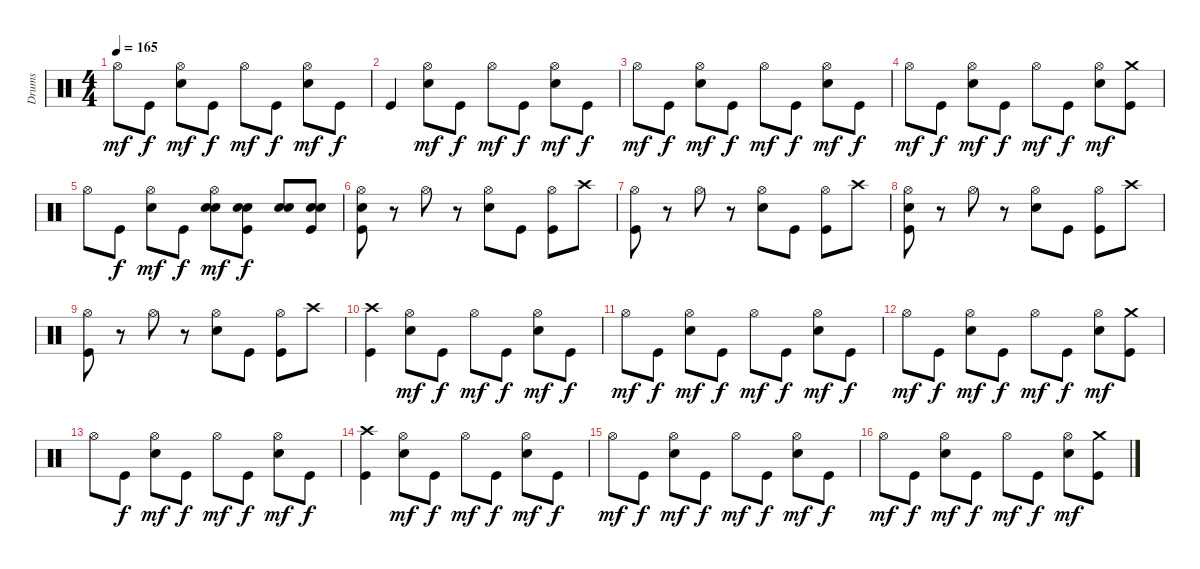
\track ("Drums" "Drums") {instrument percussion}
\staff {score}
\articulation defaults
\ts (4 4)
\tempo 165
\clef neutral
\ks c "Hi-Hat (open)".8{dy mf} "Kick (hit)".8{dy f}
("Electric Snare (hit)" "Hi-Hat (open)").8{dy mf} "Kick (hit)".8{dy f} "Hi-Hat (open)".8{dy mf} "Kick (hit)".8{dy f} ("Electric Snare (hit)" "Hi-Hat (open)").8{dy mf} "Kick (hit)".8{dy f} |
"Kick (hit)".4 ("Electric Snare (hit)" "Hi-Hat (open)").8{dy mf} "Kick (hit)".8{dy f} "Hi-Hat (open)".8{dy mf} "Kick (hit)".8{dy f} ("Electric Snare (hit)" "Hi-Hat (open)").8{dy mf} "Kick (hit)".8{dy f} |
"Hi-Hat (open)".8{dy mf} "Kick (hit)".8{dy f} ("Electric Snare (hit)" "Hi-Hat (open)").8{dy mf} "Kick (hit)".8{dy f} "Hi-Hat (open)".8{dy mf} "Kick (hit)".8{dy f} ("Electric Snare (hit)" "Hi-Hat (open)").8{dy mf} "Kick (hit)".8{dy f} |
"Hi-Hat (open)".8{dy mf} "Kick (hit)".8{dy f} ("Electric Snare (hit)" "Hi-Hat (open)").8{dy mf} "Kick (hit)".8{dy f} "Hi-Hat (open)".8{dy mf} "Kick (hit)".8{dy f} ("Electric Snare (hit)" "Hi-Hat (open)").8{dy mf} ("Kick (hit)" "Crash medium (hit)").8 |
"Hi-Hat (open)".8 "Kick (hit)".8{dy f} ("Electric Snare (hit)" "Hi-Hat (open)").8{dy mf} "Kick (hit)".8{dy f} ("Electric Snare (hit)" "Electric Snare (hit)" "Hi-Hat (open)").8{dy mf} ("Kick (hit)" "Electric Snare (hit)" "Electric Snare (hit)").8{dy f} ("Electric Snare (hit)" "Electric Snare (hit)").8 ("Kick (hit)" "Electric Snare (hit)" "Electric Snare (hit)").8 |
("Electric Snare (hit)" "Hi-Hat (open)" "Kick (hit)").8 r.8 "Hi-Hat (open)".8 r.8 ("Electric Snare (hit)" "Hi-Hat (open)").8 "Kick (hit)".8 ("Hi-Hat (open)" "Kick (hit)").8 "Crash high (hit)".8 |
("Hi-Hat (open)" "Kick (hit)").8 r.8 "Hi-Hat (open)".8 r.8 ("Electric Snare (hit)" "Hi-Hat (open)").8 "Kick (hit)".8 ("Hi-Hat (open)" "Kick (hit)").8 "Crash high (hit)".8 |
("Electric Snare (hit)" "Hi-Hat (open)" "Kick (hit)").8 r.8 "Hi-Hat (open)".8 r.8 ("Electric Snare (hit)" "Hi-Hat (open)").8 "Kick (hit)".8 ("Hi-Hat (open)" "Kick (hit)").8 "Crash high (hit)".8 |
("Hi-Hat (open)" "Kick (hit)").8 r.8 "Hi-Hat (open)".8 r.8 ("Electric Snare (hit)" "Hi-Hat (open)").8 "Kick (hit)".8 ("Hi-Hat (open)" "Kick (hit)").8 "Crash high (hit)".8 |
("Kick (hit)" "Crash high (hit)").4 ("Electric Snare (hit)" "Hi-Hat (open)").8{dy mf} "Kick (hit)".8{dy f} "Hi-Hat (open)".8{dy mf} "Kick (hit)".8{dy f} ("Electric Snare (hit)" "Hi-Hat (open)").8{dy mf} "Kick (hit)".8{dy f} |
"Hi-Hat (open)".8{dy mf} "Kick (hit)".8{dy f} ("Electric Snare (hit)" "Hi-Hat (open)").8{dy mf} "Kick (hit)".8{dy f} "Hi-Hat (open)".8{dy mf} "Kick (hit)".8{dy f} ("Electric Snare (hit)" "Hi-Hat (open)").8{dy mf} "Kick (hit)".8{dy f} |
"Hi-Hat (open)".8{dy mf} "Kick (hit)".8{dy f} ("Electric Snare (hit)" "Hi-Hat (open)").8{dy mf} "Kick (hit)".8{dy f} "Hi-Hat (open)".8{dy mf} "Kick (hit)".8{dy f} ("Electric Snare (hit)" "Hi-Hat (open)").8{dy mf} ("Kick (hit)" "Crash medium (hit)").8 |
"Hi-Hat (open)".8 "Kick (hit)".8{dy f} ("Electric Snare (hit)" "Hi-Hat (open)").8{dy mf} "Kick (hit)".8{dy f} "Hi-Hat (open)".8{dy mf} "Kick (hit)".8{dy f} ("Electric Snare (hit)" "Hi-Hat (open)").8{dy mf} "Kick (hit)".8{dy f} |
("Kick (hit)" "Crash high (hit)").4 ("Electric Snare (hit)" "Hi-Hat (open)").8{dy mf} "Kick (hit)".8{dy f} "Hi-Hat (open)".8{dy mf} "Kick (hit)".8{dy f} ("Electric Snare (hit)" "Hi-Hat (open)").8{dy mf} "Kick (hit)".8{dy f} |
"Hi-Hat (open)".8{dy mf} "Kick (hit)".8{dy f} ("Electric Snare (hit)" "Hi-Hat (open)").8{dy mf} "Kick (hit)".8{dy f} "Hi-Hat (open)".8{dy mf} "Kick (hit)".8{dy f} ("Electric Snare (hit)" "Hi-Hat (open)").8{dy mf} "Kick (hit)".8{dy f} |
"Hi-Hat (open)".8{dy mf} "Kick (hit)".8{dy f} ("Electric Snare (hit)" "Hi-Hat (open)").8{dy mf} "Kick (hit)".8{dy f} "Hi-Hat (open)".8{dy mf} "Kick (hit)".8{dy f} ("Electric Snare (hit)" "Hi-Hat (open)").8{dy mf} ("Kick (hit)" "Crash medium (hit)").8
